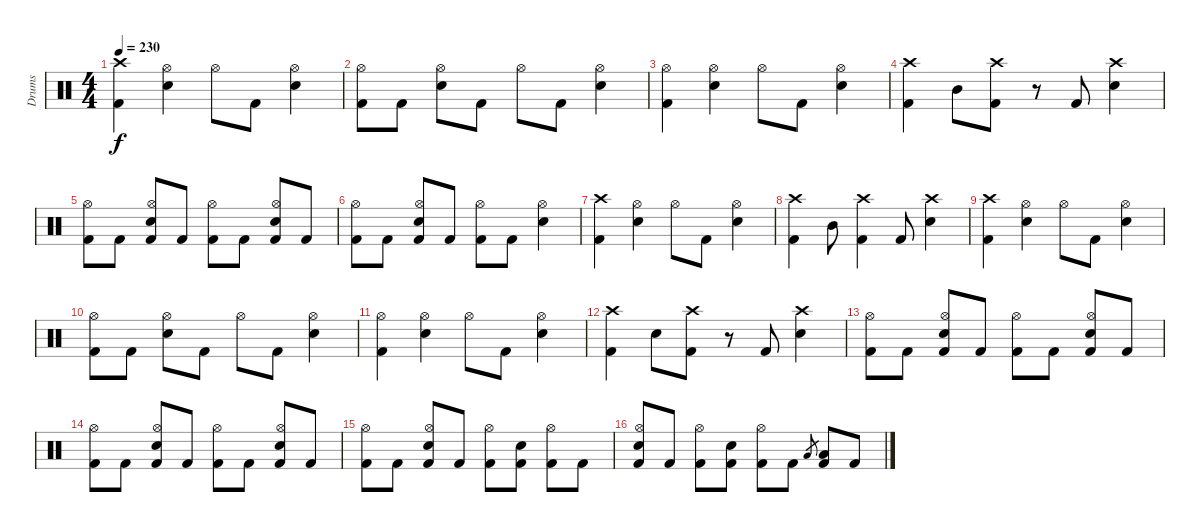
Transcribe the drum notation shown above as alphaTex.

\track ("Drums" "Drums") {instrument percussion}
\staff {score}
\articulation defaults
\ts (4 4)
\tempo 230
\clef neutral
\ks c
("Crash high (hit)" "Kick (hit) 2").4{dy f} ("Hi-Hat (open)" "Electric Snare (hit)").4 "Hi-Hat (open)".8 "Kick (hit) 2".8 ("Hi-Hat (open)" "Electric Snare (hit)").4 |
("Hi-Hat (open)" "Kick (hit) 2").8 "Kick (hit) 2".8 ("Hi-Hat (open)" "Electric Snare (hit)").8 "Kick (hit) 2".8 "Hi-Hat (open)".8 "Kick (hit) 2".8 ("Hi-Hat (open)" "Electric Snare (hit)").4 |
("Hi-Hat (open)" "Kick (hit) 2").4 ("Hi-Hat (open)" "Electric Snare (hit)").4 "Hi-Hat (open)".8 "Kick (hit) 2".8 ("Hi-Hat (open)" "Electric Snare (hit)").4 |
("Crash high (hit)" "Kick (hit) 2").4 "Mid Tom (hit)".8 ("Crash high (hit)" "Kick (hit) 2").8 r.8 "Kick (hit) 2".8 ("Crash high (hit)" "Electric Snare (hit)").4 |
("Hi-Hat (open)" "Kick (hit) 2").8 "Kick (hit) 2".8 ("Hi-Hat (open)" "Electric Snare (hit)" "Kick (hit) 2").8 "Kick (hit) 2".8 ("Hi-Hat (open)" "Kick (hit) 2").8 "Kick (hit) 2".8 ("Hi-Hat (open)" "Electric Snare (hit)" "Kick (hit) 2").8 "Kick (hit) 2".8 |
("Hi-Hat (open)" "Kick (hit) 2").8 "Kick (hit) 2".8 ("Hi-Hat (open)" "Electric Snare (hit)" "Kick (hit) 2").8 "Kick (hit) 2".8 ("Hi-Hat (open)" "Kick (hit) 2").8 "Kick (hit) 2".8 ("Hi-Hat (open)" "Electric Snare (hit)").4 |
("Crash high (hit)" "Kick (hit) 2").4 ("Hi-Hat (open)" "Electric Snare (hit)").4 "Hi-Hat (open)".8 "Kick (hit) 2".8 ("Hi-Hat (open)" "Electric Snare (hit)").4 |
("Crash high (hit)" "Kick (hit) 2").4 "Mid Tom (hit)".8 ("Crash high (hit)" "Kick (hit) 2").4 "Kick (hit) 2".8 ("Crash high (hit)" "Electric Snare (hit)").4 |
("Crash high (hit)" "Kick (hit) 2").4 ("Hi-Hat (open)" "Electric Snare (hit)").4 "Hi-Hat (open)".8 "Kick (hit) 2".8 ("Hi-Hat (open)" "Electric Snare (hit)").4 |
("Hi-Hat (open)" "Kick (hit) 2").8 "Kick (hit) 2".8 ("Hi-Hat (open)" "Electric Snare (hit)").8 "Kick (hit) 2".8 "Hi-Hat (open)".8 "Kick (hit) 2".8 ("Hi-Hat (open)" "Electric Snare (hit)").4 |
("Hi-Hat (open)" "Kick (hit) 2").4 ("Hi-Hat (open)" "Electric Snare (hit)").4 "Hi-Hat (open)".8 "Kick (hit) 2".8 ("Hi-Hat (open)" "Electric Snare (hit)").4 |
("Crash high (hit)" "Kick (hit) 2").4 "Electric Snare (hit)".8 ("Crash high (hit)" "Kick (hit) 2").8 r.8 "Kick (hit) 2".8 ("Crash high (hit)" "Electric Snare (hit)").4 |
("Hi-Hat (open)" "Kick (hit) 2").8 "Kick (hit) 2".8 ("Hi-Hat (open)" "Electric Snare (hit)" "Kick (hit) 2").8 "Kick (hit) 2".8 ("Hi-Hat (open)" "Kick (hit) 2").8 "Kick (hit) 2".8 ("Hi-Hat (open)" "Electric Snare (hit)" "Kick (hit) 2").8 "Kick (hit) 2".8 |
("Hi-Hat (open)" "Kick (hit) 2").8 "Kick (hit) 2".8 ("Hi-Hat (open)" "Electric Snare (hit)" "Kick (hit) 2").8 "Kick (hit) 2".8 ("Hi-Hat (open)" "Kick (hit) 2").8 "Kick (hit) 2".8 ("Hi-Hat (open)" "Electric Snare (hit)" "Kick (hit) 2").8 "Kick (hit) 2".8 |
("Hi-Hat (open)" "Kick (hit) 2").8 "Kick (hit) 2".8 ("Hi-Hat (open)" "Electric Snare (hit)" "Kick (hit) 2").8 "Kick (hit) 2".8 ("Hi-Hat (open)" "Kick (hit) 2").8 ("Electric Snare (hit)" "Kick (hit) 2").8 ("Hi-Hat (open)" "Kick (hit) 2").8 "Kick (hit) 2".8 |
("Hi-Hat (open)" "Electric Snare (hit)" "Kick (hit) 2").8 "Kick (hit) 2".8 ("Hi-Hat (open)" "Kick (hit) 2").8 ("Electric Snare (hit)" "Kick (hit) 2").8 ("Hi-Hat (open)" "Kick (hit) 2").8 "Kick (hit) 2".8 "Low Tom (hit)".8{gr} ("Low Tom (hit)" "Kick (hit) 2").8 "Kick (hit) 2".8
